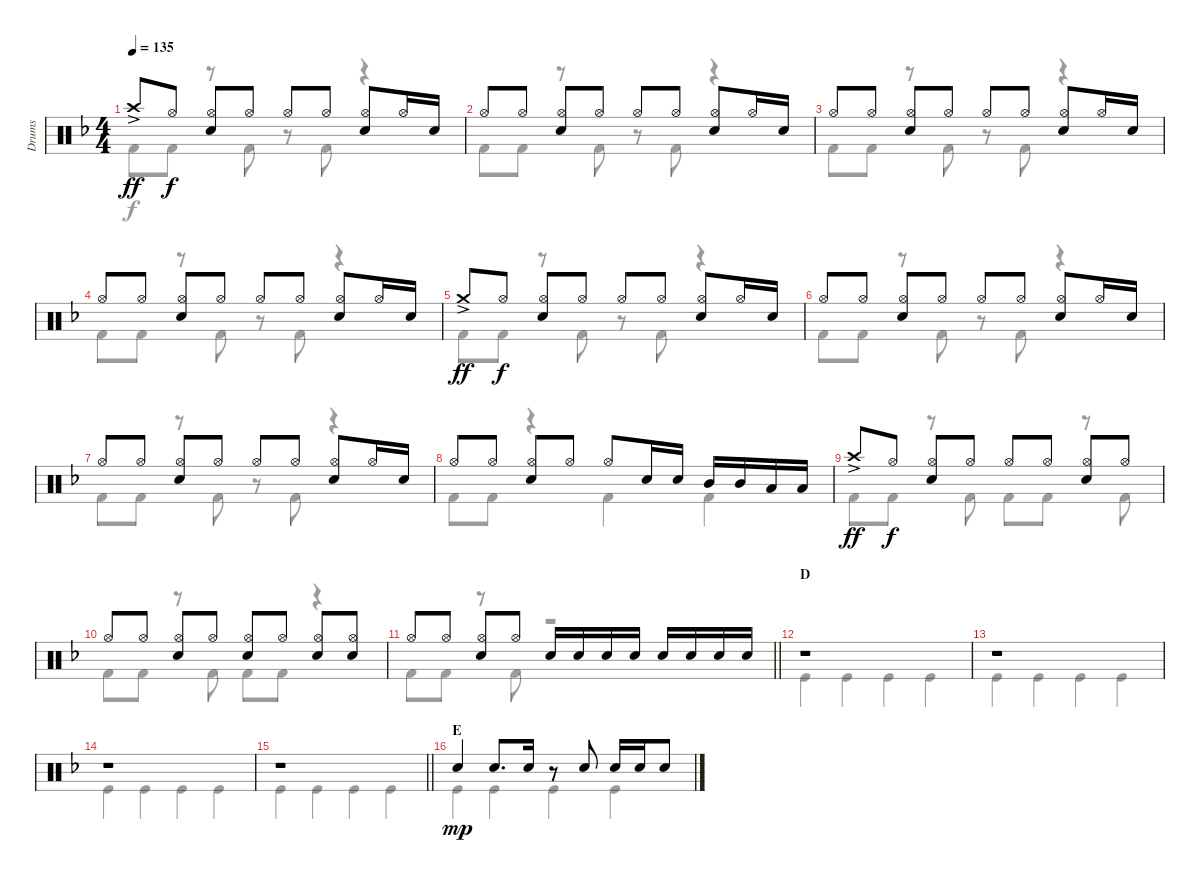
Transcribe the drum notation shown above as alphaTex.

\track ("Drums" "Drums") {instrument percussion}
\staff {score}
\articulation defaults
\voice
\ts (4 4)
\tempo 135
\clef neutral
\ks f "Crash high (hit)"{ac}.8{dy ff} "Hi-Hat (open)".8{dy f}
("Hi-Hat (open)" "Snare (hit) 2").8 "Hi-Hat (open)".8 "Hi-Hat (open)".8 "Hi-Hat (open)".8 ("Hi-Hat (open)" "Snare (hit) 2").8 "Hi-Hat (open)".16 "Snare (hit) 2".16 |
"Hi-Hat (open)".8 "Hi-Hat (open)".8 ("Hi-Hat (open)" "Snare (hit) 2").8 "Hi-Hat (open)".8 "Hi-Hat (open)".8 "Hi-Hat (open)".8 ("Hi-Hat (open)" "Snare (hit) 2").8 "Hi-Hat (open)".16 "Snare (hit) 2".16 |
"Hi-Hat (open)".8 "Hi-Hat (open)".8 ("Hi-Hat (open)" "Snare (hit) 2").8 "Hi-Hat (open)".8 "Hi-Hat (open)".8 "Hi-Hat (open)".8 ("Hi-Hat (open)" "Snare (hit) 2").8 "Hi-Hat (open)".16 "Snare (hit) 2".16 |
"Hi-Hat (open)".8 "Hi-Hat (open)".8 ("Hi-Hat (open)" "Snare (hit) 2").8 "Hi-Hat (open)".8 "Hi-Hat (open)".8 "Hi-Hat (open)".8 ("Hi-Hat (open)" "Snare (hit) 2").8 "Hi-Hat (open)".16 "Snare (hit) 2".16 |
"Crash medium (hit)"{ac}.8{dy ff} "Hi-Hat (open)".8{dy f} ("Hi-Hat (open)" "Snare (hit) 2").8 "Hi-Hat (open)".8 "Hi-Hat (open)".8 "Hi-Hat (open)".8 ("Hi-Hat (open)" "Snare (hit) 2").8 "Hi-Hat (open)".16 "Snare (hit) 2".16 |
"Hi-Hat (open)".8 "Hi-Hat (open)".8 ("Hi-Hat (open)" "Snare (hit) 2").8 "Hi-Hat (open)".8 "Hi-Hat (open)".8 "Hi-Hat (open)".8 ("Hi-Hat (open)" "Snare (hit) 2").8 "Hi-Hat (open)".16 "Snare (hit) 2".16 |
"Hi-Hat (open)".8 "Hi-Hat (open)".8 ("Hi-Hat (open)" "Snare (hit) 2").8 "Hi-Hat (open)".8 "Hi-Hat (open)".8 "Hi-Hat (open)".8 ("Hi-Hat (open)" "Snare (hit) 2").8 "Hi-Hat (open)".16 "Snare (hit) 2".16 |
"Hi-Hat (open)".8 "Hi-Hat (open)".8 ("Hi-Hat (open)" "Snare (hit) 2").8 "Hi-Hat (open)".8 "Hi-Hat (open)".8 "Snare (hit) 2".16 "Snare (hit) 2".16 "Mid Tom (hit)".16 "Mid Tom (hit)".16 "Low Tom (hit)".16 "Low Tom (hit)".16 |
"Crash high (hit)"{ac}.8{dy ff} "Hi-Hat (open)".8{dy f} ("Hi-Hat (open)" "Snare (hit) 2").8 "Hi-Hat (open)".8 "Hi-Hat (open)".8 "Hi-Hat (open)".8 ("Hi-Hat (open)" "Snare (hit) 2").8 "Hi-Hat (open)".8 |
"Hi-Hat (open)".8 "Hi-Hat (open)".8 ("Hi-Hat (open)" "Snare (hit) 2").8 "Hi-Hat (open)".8 ("Hi-Hat (open)" "Snare (hit) 2").8 "Hi-Hat (open)".8 ("Hi-Hat (open)" "Snare (hit) 2").8 ("Hi-Hat (open)" "Snare (hit) 2").8 |
\barLineRight lightlight "Hi-Hat (open)".8 "Hi-Hat (open)".8
("Hi-Hat (open)" "Snare (hit) 2").8 "Hi-Hat (open)".8 "Snare (hit) 2".16 "Snare (hit) 2".16 "Snare (hit) 2".16 "Snare (hit) 2".16 "Snare (hit) 2".16 "Snare (hit) 2".16 "Snare (hit) 2".16 "Snare (hit) 2".16 |
\section ("" "D")
r.1 |
r.1 |
r.1 |
\barLineRight lightlight
r.1 |
\section ("" "E")
"Electric Snare (hit)".4{dy mp} "Electric Snare (hit)".8{d} "Electric Snare (hit)".16 r.8 "Electric Snare (hit)".8 "Electric Snare (hit)".16 "Electric Snare (hit)".16 "Electric Snare (hit)".8
\voice
\clef neutral
\ottava regular
\simile none
\ks f "Kick (hit) 2".8{dy f} "Kick (hit) 2".8
r.8 "Kick (hit) 2".8 r.8 "Kick (hit) 2".8 r.4 |
"Kick (hit) 2".8 "Kick (hit) 2".8 r.8 "Kick (hit) 2".8 r.8 "Kick (hit) 2".8 r.4 |
"Kick (hit) 2".8 "Kick (hit) 2".8 r.8 "Kick (hit) 2".8 r.8 "Kick (hit) 2".8 r.4 |
"Kick (hit) 2".8 "Kick (hit) 2".8 r.8 "Kick (hit) 2".8 r.8 "Kick (hit) 2".8 r.4 |
"Kick (hit) 2".8 "Kick (hit) 2".8 r.8 "Kick (hit) 2".8 r.8 "Kick (hit) 2".8 r.4 |
"Kick (hit) 2".8 "Kick (hit) 2".8 r.8 "Kick (hit) 2".8 r.8 "Kick (hit) 2".8 r.4 |
"Kick (hit) 2".8 "Kick (hit) 2".8 r.8 "Kick (hit) 2".8 r.8 "Kick (hit) 2".8 r.4 |
"Kick (hit) 2".8 "Kick (hit) 2".8 r.4 "Kick (hit) 2".4 "Kick (hit) 2".4 |
"Kick (hit) 2".8 "Kick (hit) 2".8 r.8 "Kick (hit) 2".8 "Kick (hit) 2".8 "Kick (hit) 2".8 r.8 "Kick (hit) 2".8 |
"Kick (hit) 2".8 "Kick (hit) 2".8 r.8 "Kick (hit) 2".8 "Kick (hit) 2".8 "Kick (hit) 2".8 r.4 |
\barLineRight lightlight "Kick (hit) 2".8 "Kick (hit) 2".8
r.8 "Kick (hit) 2".8 r.2 |
"Kick (hit)".4 "Kick (hit)".4 "Kick (hit)".4 "Kick (hit)".4 |
"Kick (hit)".4 "Kick (hit)".4 "Kick (hit)".4 "Kick (hit)".4 |
"Kick (hit)".4 "Kick (hit)".4 "Kick (hit)".4 "Kick (hit)".4 |
\barLineRight lightlight "Kick (hit)".4 "Kick (hit)".4 "Kick (hit)".4 "Kick (hit)".4
|
"Kick (hit)".4 "Kick (hit)".4 "Kick (hit)".4 "Kick (hit)".4
